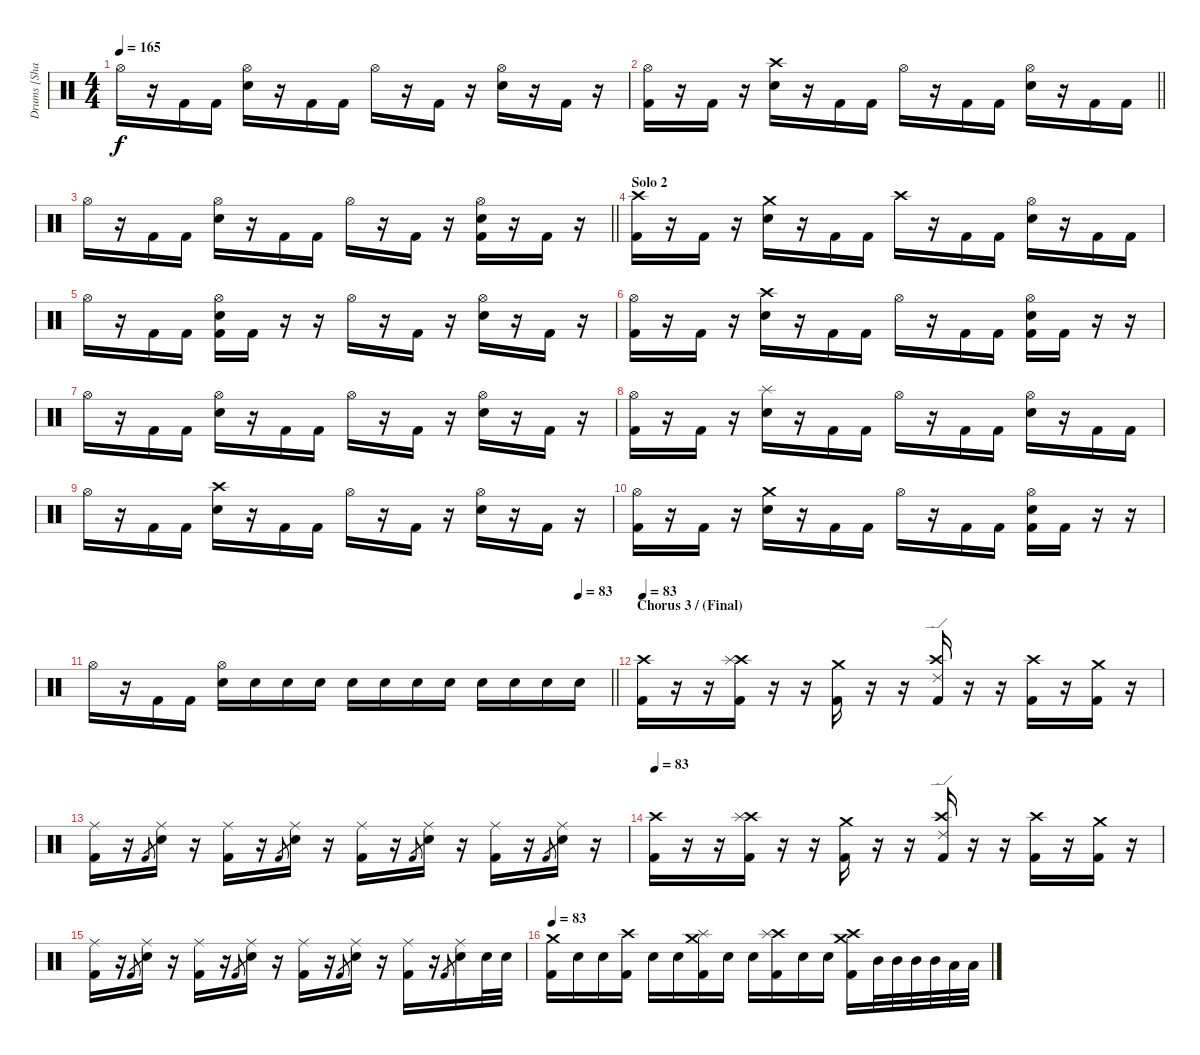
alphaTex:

\track ("Drums [Shawn Drover]" "Drums [Sha") {instrument percussion}
\staff {score}
\articulation defaults
\ts (4 4)
\tempo 165
\clef neutral
\ks c "Hi-Hat (open)".16{dy f}
r.16 "Kick (hit) 2".16 "Kick (hit) 2".16 ("Hi-Hat (open)" "Electric Snare (hit)").16 r.16 "Kick (hit) 2".16 "Kick (hit) 2".16 "Hi-Hat (open)".16 r.16 "Kick (hit) 2".16 r.16 ("Hi-Hat (open)" "Electric Snare (hit)").16 r.16 "Kick (hit) 2".16 r.16 |
\barLineRight lightlight
("Hi-Hat (open)" "Kick (hit) 2").16 r.16 "Kick (hit) 2".16 r.16 ("Crash high (hit)" "Electric Snare (hit)").16 r.16 "Kick (hit) 2".16 "Kick (hit) 2".16 "Hi-Hat (open)".16 r.16 "Kick (hit) 2".16 "Kick (hit) 2".16 ("Hi-Hat (open)" "Electric Snare (hit)").16 r.16 "Kick (hit) 2".16 "Kick (hit) 2".16 |
\barLineRight lightlight "Hi-Hat (open)".16
r.16 "Kick (hit) 2".16 "Kick (hit) 2".16 ("Hi-Hat (open)" "Electric Snare (hit)").16 r.16 "Kick (hit) 2".16 "Kick (hit) 2".16 "Hi-Hat (open)".16 r.16 "Kick (hit) 2".16 r.16 ("Hi-Hat (open)" "Electric Snare (hit)" "Kick (hit) 2").16 r.16 "Kick (hit) 2".16 r.16 |
\section ("" "Solo 2")
("Crash high (hit)" "Kick (hit) 2").16 r.16 "Kick (hit) 2".16 r.16 ("Crash medium (hit)" "Electric Snare (hit)").16 r.16 "Kick (hit) 2".16 "Kick (hit) 2".16 "Crash high (hit)".16 r.16 "Kick (hit) 2".16 "Kick (hit) 2".16 ("Hi-Hat (open)" "Electric Snare (hit)").16 r.16 "Kick (hit) 2".16 "Kick (hit) 2".16 |
"Hi-Hat (open)".16 r.16 "Kick (hit) 2".16 "Kick (hit) 2".16 ("Hi-Hat (open)" "Electric Snare (hit)" "Kick (hit) 2").16 "Kick (hit) 2".16 r.16 r.16 "Hi-Hat (open)".16 r.16 "Kick (hit) 2".16 r.16 ("Hi-Hat (open)" "Electric Snare (hit)").16 r.16 "Kick (hit) 2".16 r.16 |
("Hi-Hat (open)" "Kick (hit) 2").16 r.16 "Kick (hit) 2".16 r.16 ("Crash high (hit)" "Electric Snare (hit)").16 r.16 "Kick (hit) 2".16 "Kick (hit) 2".16 "Hi-Hat (open)".16 r.16 "Kick (hit) 2".16 "Kick (hit) 2".16 ("Hi-Hat (open)" "Electric Snare (hit)" "Kick (hit) 2").16 "Kick (hit) 2".16 r.16 r.16 |
"Hi-Hat (open)".16 r.16 "Kick (hit) 2".16 "Kick (hit) 2".16 ("Hi-Hat (open)" "Electric Snare (hit)").16 r.16 "Kick (hit) 2".16 "Kick (hit) 2".16 "Hi-Hat (open)".16 r.16 "Kick (hit) 2".16 r.16 ("Hi-Hat (open)" "Electric Snare (hit)").16 r.16 "Kick (hit) 2".16 r.16 |
("Hi-Hat (open)" "Kick (hit) 2").16 r.16 "Kick (hit) 2".16 r.16 ("Splash (hit)" "Electric Snare (hit)").16 r.16 "Kick (hit) 2".16 "Kick (hit) 2".16 "Hi-Hat (open)".16 r.16 "Kick (hit) 2".16 "Kick (hit) 2".16 ("Hi-Hat (open)" "Electric Snare (hit)").16 r.16 "Kick (hit) 2".16 "Kick (hit) 2".16 |
"Hi-Hat (open)".16 r.16 "Kick (hit) 2".16 "Kick (hit) 2".16 ("Crash high (hit)" "Electric Snare (hit)").16 r.16 "Kick (hit) 2".16 "Kick (hit) 2".16 "Hi-Hat (open)".16 r.16 "Kick (hit) 2".16 r.16 ("Hi-Hat (open)" "Electric Snare (hit)").16 r.16 "Kick (hit) 2".16 r.16 |
("Hi-Hat (open)" "Kick (hit) 2").16 r.16 "Kick (hit) 2".16 r.16 ("Crash medium (hit)" "Electric Snare (hit)").16 r.16 "Kick (hit) 2".16 "Kick (hit) 2".16 "Hi-Hat (open)".16 r.16 "Kick (hit) 2".16 "Kick (hit) 2".16 ("Hi-Hat (open)" "Electric Snare (hit)" "Kick (hit) 2").16 "Kick (hit) 2".16 r.16 r.16 |
\tempo (83 0.9375)
\barLineRight lightlight "Hi-Hat (open)".16
r.16 "Kick (hit) 2".16 "Kick (hit) 2".16 ("Hi-Hat (open)" "Electric Snare (hit)").16 "Electric Snare (hit)".16 "Electric Snare (hit)".16 "Electric Snare (hit)".16 "Electric Snare (hit)".16 "Electric Snare (hit)".16 "Electric Snare (hit)".16 "Electric Snare (hit)".16 "Electric Snare (hit)".16 "Electric Snare (hit)".16 "Electric Snare (hit)".16 "Electric Snare (hit)".16 |
\section ("" "Chorus 3 / (Final)")
\tempo 83
("Crash high (hit)" "Kick (hit) 2").16 r.16 r.16 ("Crash high (hit)" "Splash (hit)" "Kick (hit) 2").16 r.16 r.16 ("Crash medium (hit)" "Kick (hit) 2").16 r.16 r.16 ("Crash high (hit)" "Ride (edge) 2" "Kick (hit) 2").16 r.16 r.16 ("Crash high (hit)" "Kick (hit) 2").16 r.16 ("Crash medium (hit)" "Kick (hit) 2").16 r.16 |
("Ride (middle)" "Kick (hit) 2").16 r.16 "Kick (hit) 2".8{gr} ("Ride (middle)" "Electric Snare (hit)").16 r.16 ("Ride (middle)" "Kick (hit) 2").16 r.16 "Kick (hit) 2".8{gr} ("Ride (middle)" "Electric Snare (hit)").16 r.16 ("Ride (middle)" "Kick (hit) 2").16 r.16 "Kick (hit) 2".8{gr} ("Ride (middle)" "Electric Snare (hit)").16 r.16 ("Ride (middle)" "Kick (hit) 2").16 r.16 "Kick (hit) 2".8{gr} ("Ride (middle)" "Electric Snare (hit)").16 r.16 |
\tempo 83
("Crash high (hit)" "Kick (hit) 2").16 r.16 r.16 ("Crash high (hit)" "Splash (hit)" "Kick (hit) 2").16 r.16 r.16 ("Crash medium (hit)" "Kick (hit) 2").16 r.16 r.16 ("Crash high (hit)" "Ride (edge) 2" "Kick (hit) 2").16 r.16 r.16 ("Crash high (hit)" "Kick (hit) 2").16 r.16 ("Crash medium (hit)" "Kick (hit) 2").16 r.16 |
("Ride (middle)" "Kick (hit) 2").16 r.16 "Kick (hit) 2".8{gr} ("Ride (middle)" "Electric Snare (hit)").16 r.16 ("Ride (middle)" "Kick (hit) 2").16 r.16 "Kick (hit) 2".8{gr} ("Ride (middle)" "Electric Snare (hit)").16 r.16 ("Ride (middle)" "Kick (hit) 2").16 r.16 "Kick (hit) 2".8{gr} ("Ride (middle)" "Electric Snare (hit)").16 r.16 ("Ride (middle)" "Kick (hit) 2").16 r.16 "Kick (hit) 2".8{gr} ("Ride (middle)" "Electric Snare (hit)").16 "Electric Snare (hit)".32 "Electric Snare (hit)".32 |
\tempo 83
("Crash medium (hit)" "Kick (hit) 2").16 "Electric Snare (hit)".16 "Electric Snare (hit)".16 ("Crash high (hit)" "Kick (hit) 2").16 "Electric Snare (hit)".16 "Electric Snare (hit)".16 ("Crash medium (hit)" "Splash (hit)" "Kick (hit) 2").16 "Electric Snare (hit)".16 "Electric Snare (hit)".16 ("Crash high (hit)" "Splash (hit)" "Kick (hit) 2").16 "Electric Snare (hit)".16 "Electric Snare (hit)".16 ("Crash high (hit)" "Crash medium (hit)" "Kick (hit) 2").16 "Mid Tom (hit)".32 "Mid Tom (hit)".32 "Mid Tom (hit)".32 "Mid Tom (hit)".32 "Low Tom (hit)".32 "Low Tom (hit)".32
